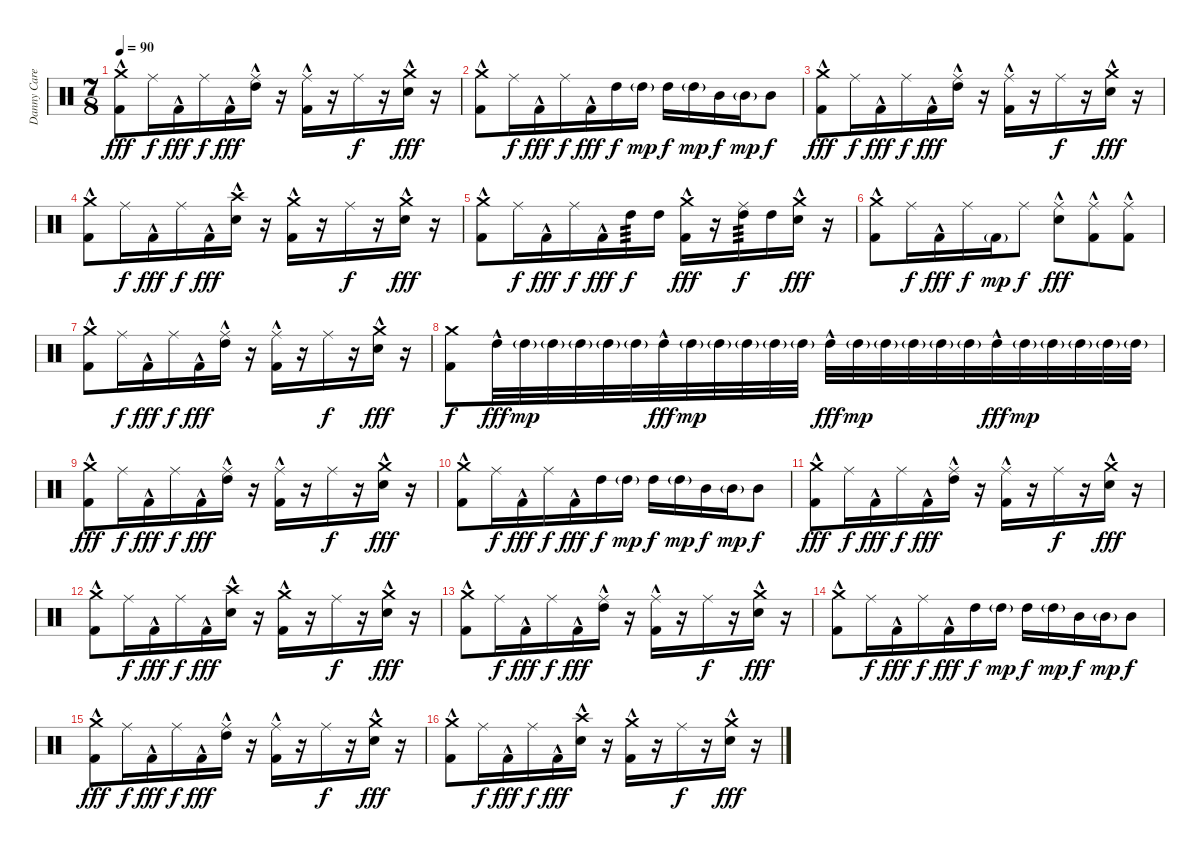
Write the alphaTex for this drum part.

\track ("Danny Carey" "Danny Care") {instrument percussion}
\staff {score}
\articulation defaults
\ts (7 8)
\tempo 90
\clef neutral
\ks c
("Crash medium (hit)" "Kick (hit) 2"{hac}).8{dy fff} "Ride (middle)".16{dy f} "Kick (hit) 2"{hac}.16{dy fff} "Ride (middle)".16{dy f} "Kick (hit) 2"{hac}.16{dy fff} ("Ride (middle)" "High Tom (hit)"{hac}).16 r.16 ("Ride (middle)" "Kick (hit) 2"{hac}).16 r.16 "Ride (middle)".16{dy f} r.16 ("Crash medium (hit)" "Electric Snare (hit)"{hac}).16{dy fff} r.16 |
("Crash medium (hit)" "Kick (hit) 2"{hac}).8 "Ride (middle)".16{dy f} "Kick (hit) 2"{hac}.16{dy fff} "Ride (middle)".16{dy f} "Kick (hit) 2"{hac}.16{dy fff} "High Tom (hit)".16{dy f} "High Tom (hit)"{g}.16{dy mp} "High Tom (hit)".16{dy f} "High Tom (hit)"{g}.16{dy mp} "Mid Tom (hit)".16{dy f} "Mid Tom (hit)"{g}.16{dy mp} "Mid Tom (hit)".8{dy f} |
("Crash medium (hit)" "Kick (hit) 2"{hac}).8{dy fff} "Ride (middle)".16{dy f} "Kick (hit) 2"{hac}.16{dy fff} "Ride (middle)".16{dy f} "Kick (hit) 2"{hac}.16{dy fff} ("Ride (middle)" "High Tom (hit)"{hac}).16 r.16 ("Ride (middle)" "Kick (hit) 2"{hac}).16 r.16 "Ride (middle)".16{dy f} r.16 ("Crash medium (hit)" "Electric Snare (hit)"{hac}).16{dy fff} r.16 |
("Crash medium (hit)" "Kick (hit) 2"{hac}).8 "Ride (middle)".16{dy f} "Kick (hit) 2"{hac}.16{dy fff} "Ride (middle)".16{dy f} "Kick (hit) 2"{hac}.16{dy fff} ("Crash high (hit)" "Electric Snare (hit)"{hac}).16 r.16 ("Crash medium (hit)" "Kick (hit) 2"{hac}).16 r.16 "Ride (middle)".16{dy f} r.16 ("Crash medium (hit)" "Electric Snare (hit)"{hac}).16{dy fff} r.16 |
("Crash medium (hit)" "Kick (hit) 2"{hac}).8 "Ride (middle)".16{dy f} "Kick (hit) 2"{hac}.16{dy fff} "Ride (middle)".16{dy f} "Kick (hit) 2"{hac}.16{dy fff} "High Tom (hit)".16{tp 3 dy f} "High Tom (hit)".16 ("Crash medium (hit)" "Kick (hit) 2"{hac}).16{dy fff} r.16 ("Ride (middle)" "High Tom (hit)").16{tp 3 dy f} "High Tom (hit)".16 ("Crash medium (hit)" "Electric Snare (hit)"{hac}).16{dy fff} r.16 |
("Crash medium (hit)" "Kick (hit) 2"{hac}).8 "Ride (middle)".16{dy f} "Kick (hit) 2"{hac}.16{dy fff} "Ride (middle)".16{dy f} "Kick (hit) 2"{g}.16{dy mp} "Ride (middle)".8{dy f} ("Ride (middle)" "Electric Snare (hit)"{hac}).8{dy fff} ("Ride (middle)" "Kick (hit) 2"{hac}).8 ("Ride (middle)" "Kick (hit) 2"{hac}).8 |
("Crash medium (hit)" "Kick (hit) 2"{hac}).8 "Ride (middle)".16{dy f} "Kick (hit) 2"{hac}.16{dy fff} "Ride (middle)".16{dy f} "Kick (hit) 2"{hac}.16{dy fff} ("Ride (middle)" "High Tom (hit)"{hac}).16 r.16 ("Ride (middle)" "Kick (hit) 2"{hac}).16 r.16 "Ride (middle)".16{dy f} r.16 ("Crash medium (hit)" "Electric Snare (hit)"{hac}).16{dy fff} r.16 |
("Crash medium (hit)" "Kick (hit) 2").8{dy f} "High Tom (hit)"{hac}.32{dy fff} "High Tom (hit)"{g}.32{dy mp} "High Tom (hit)"{g}.32 "High Tom (hit)"{g}.32 "High Tom (hit)"{g}.32 "High Tom (hit)"{g}.32 "High Tom (hit)"{hac}.32{dy fff} "High Tom (hit)"{g}.32{dy mp} "High Tom (hit)"{g}.32 "High Tom (hit)"{g}.32 "High Tom (hit)"{g}.32 "High Tom (hit)"{g}.32 "High Tom (hit)"{hac}.32{dy fff} "High Tom (hit)"{g}.32{dy mp} "High Tom (hit)"{g}.32 "High Tom (hit)"{g}.32 "High Tom (hit)"{g}.32 "High Tom (hit)"{g}.32 "High Tom (hit)"{hac}.32{dy fff} "High Tom (hit)"{g}.32{dy mp} "High Tom (hit)"{g}.32 "High Tom (hit)"{g}.32 "High Tom (hit)"{g}.32 "High Tom (hit)"{g}.32 |
("Crash medium (hit)" "Kick (hit) 2"{hac}).8{dy fff} "Ride (middle)".16{dy f} "Kick (hit) 2"{hac}.16{dy fff} "Ride (middle)".16{dy f} "Kick (hit) 2"{hac}.16{dy fff} ("Ride (middle)" "High Tom (hit)"{hac}).16 r.16 ("Ride (middle)" "Kick (hit) 2"{hac}).16 r.16 "Ride (middle)".16{dy f} r.16 ("Crash medium (hit)" "Electric Snare (hit)"{hac}).16{dy fff} r.16 |
("Crash medium (hit)" "Kick (hit) 2"{hac}).8 "Ride (middle)".16{dy f} "Kick (hit) 2"{hac}.16{dy fff} "Ride (middle)".16{dy f} "Kick (hit) 2"{hac}.16{dy fff} "High Tom (hit)".16{dy f} "High Tom (hit)"{g}.16{dy mp} "High Tom (hit)".16{dy f} "High Tom (hit)"{g}.16{dy mp} "Mid Tom (hit)".16{dy f} "Mid Tom (hit)"{g}.16{dy mp} "Mid Tom (hit)".8{dy f} |
("Crash medium (hit)" "Kick (hit) 2"{hac}).8{dy fff} "Ride (middle)".16{dy f} "Kick (hit) 2"{hac}.16{dy fff} "Ride (middle)".16{dy f} "Kick (hit) 2"{hac}.16{dy fff} ("Ride (middle)" "High Tom (hit)"{hac}).16 r.16 ("Ride (middle)" "Kick (hit) 2"{hac}).16 r.16 "Ride (middle)".16{dy f} r.16 ("Crash medium (hit)" "Electric Snare (hit)"{hac}).16{dy fff} r.16 |
("Crash medium (hit)" "Kick (hit) 2"{hac}).8 "Ride (middle)".16{dy f} "Kick (hit) 2"{hac}.16{dy fff} "Ride (middle)".16{dy f} "Kick (hit) 2"{hac}.16{dy fff} ("Crash high (hit)" "Electric Snare (hit)"{hac}).16 r.16 ("Crash medium (hit)" "Kick (hit) 2"{hac}).16 r.16 "Ride (middle)".16{dy f} r.16 ("Crash medium (hit)" "Electric Snare (hit)"{hac}).16{dy fff} r.16 |
("Crash medium (hit)" "Kick (hit) 2"{hac}).8 "Ride (middle)".16{dy f} "Kick (hit) 2"{hac}.16{dy fff} "Ride (middle)".16{dy f} "Kick (hit) 2"{hac}.16{dy fff} ("Ride (middle)" "High Tom (hit)"{hac}).16 r.16 ("Ride (middle)" "Kick (hit) 2"{hac}).16 r.16 "Ride (middle)".16{dy f} r.16 ("Crash medium (hit)" "Electric Snare (hit)"{hac}).16{dy fff} r.16 |
("Crash medium (hit)" "Kick (hit) 2"{hac}).8 "Ride (middle)".16{dy f} "Kick (hit) 2"{hac}.16{dy fff} "Ride (middle)".16{dy f} "Kick (hit) 2"{hac}.16{dy fff} "High Tom (hit)".16{dy f} "High Tom (hit)"{g}.16{dy mp} "High Tom (hit)".16{dy f} "High Tom (hit)"{g}.16{dy mp} "Mid Tom (hit)".16{dy f} "Mid Tom (hit)"{g}.16{dy mp} "Mid Tom (hit)".8{dy f} |
("Crash medium (hit)" "Kick (hit) 2"{hac}).8{dy fff} "Ride (middle)".16{dy f} "Kick (hit) 2"{hac}.16{dy fff} "Ride (middle)".16{dy f} "Kick (hit) 2"{hac}.16{dy fff} ("Ride (middle)" "High Tom (hit)"{hac}).16 r.16 ("Ride (middle)" "Kick (hit) 2"{hac}).16 r.16 "Ride (middle)".16{dy f} r.16 ("Crash medium (hit)" "Electric Snare (hit)"{hac}).16{dy fff} r.16 |
("Crash medium (hit)" "Kick (hit) 2"{hac}).8 "Ride (middle)".16{dy f} "Kick (hit) 2"{hac}.16{dy fff} "Ride (middle)".16{dy f} "Kick (hit) 2"{hac}.16{dy fff} ("Crash high (hit)" "Electric Snare (hit)"{hac}).16 r.16 ("Crash medium (hit)" "Kick (hit) 2"{hac}).16 r.16 "Ride (middle)".16{dy f} r.16 ("Crash medium (hit)" "Electric Snare (hit)"{hac}).16{dy fff} r.16
